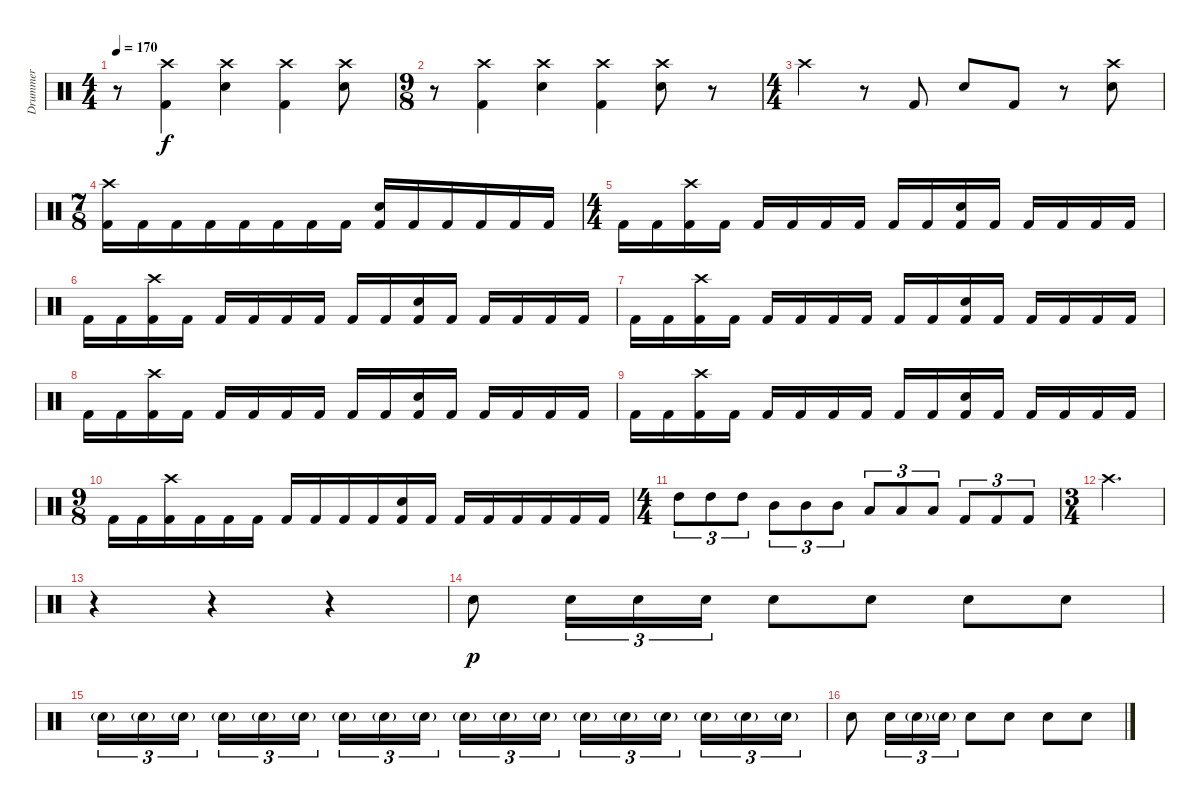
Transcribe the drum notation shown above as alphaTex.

\track ("Drummer" "Drummer") {instrument percussion}
\staff {score}
\articulation defaults
\ts (4 4)
\tempo 170
\clef neutral
\ks c
r.8{dy f} ("Crash high (hit)" "Kick (hit) 2").4 ("Crash high (hit)" "Electric Snare (hit)").4 ("Crash high (hit)" "Kick (hit) 2").4 ("Crash high (hit)" "Electric Snare (hit)").8 |
\ts (9 8)
r.8 ("Crash high (hit)" "Kick (hit) 2").4 ("Crash high (hit)" "Electric Snare (hit)").4 ("Crash high (hit)" "Kick (hit) 2").4 ("Crash high (hit)" "Electric Snare (hit)").8 r.8 |
\ts (4 4)
"Crash high (hit)".4 r.8 "Kick (hit) 2".8 "Electric Snare (hit)".8 "Kick (hit) 2".8 r.8 ("Crash high (hit)" "Electric Snare (hit)").8 |
\ts (7 8)
("Crash high (hit)" "Kick (hit) 2").16 "Kick (hit) 2".16 "Kick (hit) 2".16 "Kick (hit) 2".16 "Kick (hit) 2".16 "Kick (hit) 2".16 "Kick (hit) 2".16 "Kick (hit) 2".16 ("Electric Snare (hit)" "Kick (hit) 2").16 "Kick (hit) 2".16 "Kick (hit) 2".16 "Kick (hit) 2".16 "Kick (hit) 2".16 "Kick (hit) 2".16 |
\ts (4 4)
"Kick (hit) 2".16 "Kick (hit) 2".16 ("Crash high (hit)" "Kick (hit) 2").16 "Kick (hit) 2".16 "Kick (hit) 2".16 "Kick (hit) 2".16 "Kick (hit) 2".16 "Kick (hit) 2".16 "Kick (hit) 2".16 "Kick (hit) 2".16 ("Electric Snare (hit)" "Kick (hit) 2").16 "Kick (hit) 2".16 "Kick (hit) 2".16 "Kick (hit) 2".16 "Kick (hit) 2".16 "Kick (hit) 2".16 |
"Kick (hit) 2".16 "Kick (hit) 2".16 ("Crash high (hit)" "Kick (hit) 2").16 "Kick (hit) 2".16 "Kick (hit) 2".16 "Kick (hit) 2".16 "Kick (hit) 2".16 "Kick (hit) 2".16 "Kick (hit) 2".16 "Kick (hit) 2".16 ("Electric Snare (hit)" "Kick (hit) 2").16 "Kick (hit) 2".16 "Kick (hit) 2".16 "Kick (hit) 2".16 "Kick (hit) 2".16 "Kick (hit) 2".16 |
"Kick (hit) 2".16 "Kick (hit) 2".16 ("Crash high (hit)" "Kick (hit) 2").16 "Kick (hit) 2".16 "Kick (hit) 2".16 "Kick (hit) 2".16 "Kick (hit) 2".16 "Kick (hit) 2".16 "Kick (hit) 2".16 "Kick (hit) 2".16 ("Electric Snare (hit)" "Kick (hit) 2").16 "Kick (hit) 2".16 "Kick (hit) 2".16 "Kick (hit) 2".16 "Kick (hit) 2".16 "Kick (hit) 2".16 |
"Kick (hit) 2".16 "Kick (hit) 2".16 ("Crash high (hit)" "Kick (hit) 2").16 "Kick (hit) 2".16 "Kick (hit) 2".16 "Kick (hit) 2".16 "Kick (hit) 2".16 "Kick (hit) 2".16 "Kick (hit) 2".16 "Kick (hit) 2".16 ("Electric Snare (hit)" "Kick (hit) 2").16 "Kick (hit) 2".16 "Kick (hit) 2".16 "Kick (hit) 2".16 "Kick (hit) 2".16 "Kick (hit) 2".16 |
"Kick (hit) 2".16 "Kick (hit) 2".16 ("Crash high (hit)" "Kick (hit) 2").16 "Kick (hit) 2".16 "Kick (hit) 2".16 "Kick (hit) 2".16 "Kick (hit) 2".16 "Kick (hit) 2".16 "Kick (hit) 2".16 "Kick (hit) 2".16 ("Electric Snare (hit)" "Kick (hit) 2").16 "Kick (hit) 2".16 "Kick (hit) 2".16 "Kick (hit) 2".16 "Kick (hit) 2".16 "Kick (hit) 2".16 |
\ts (9 8)
"Kick (hit) 2".16 "Kick (hit) 2".16 ("Crash high (hit)" "Kick (hit) 2").16 "Kick (hit) 2".16 "Kick (hit) 2".16 "Kick (hit) 2".16 "Kick (hit) 2".16 "Kick (hit) 2".16 "Kick (hit) 2".16 "Kick (hit) 2".16 ("Electric Snare (hit)" "Kick (hit) 2").16 "Kick (hit) 2".16 "Kick (hit) 2".16 "Kick (hit) 2".16 "Kick (hit) 2".16 "Kick (hit) 2".16 "Kick (hit) 2".16 "Kick (hit) 2".16 |
\ts (4 4)
"High Tom (hit)".8{tu (3 2)} "High Tom (hit)".8{tu (3 2)} "High Tom (hit)".8{tu (3 2)} "Mid Tom (hit)".8{tu (3 2)} "Mid Tom (hit)".8{tu (3 2)} "Mid Tom (hit)".8{tu (3 2)} "Low Tom (hit)".8{tu (3 2)} "Low Tom (hit)".8{tu (3 2)} "Low Tom (hit)".8{tu (3 2)} "Kick (hit) 2".8{tu (3 2)} "Kick (hit) 2".8{tu (3 2)} "Kick (hit) 2".8{tu (3 2)} |
\ts (3 4)
"Crash high (hit)".2{d} |
r.4 r.4 r.4 |
"Electric Snare (hit)".8{dy p} "Electric Snare (hit)".16{tu (3 2)} "Electric Snare (hit)".16{tu (3 2)} "Electric Snare (hit)".16{tu (3 2)} "Electric Snare (hit)".8 "Electric Snare (hit)".8 "Electric Snare (hit)".8 "Electric Snare (hit)".8 |
"Electric Snare (hit)"{g}.16{tu (3 2)} "Electric Snare (hit)"{g}.16{tu (3 2)} "Electric Snare (hit)"{g}.16{tu (3 2) beam splitsecondary} "Electric Snare (hit)"{g}.16{tu (3 2)} "Electric Snare (hit)"{g}.16{tu (3 2)} "Electric Snare (hit)"{g}.16{tu (3 2)} "Electric Snare (hit)"{g}.16{tu (3 2)} "Electric Snare (hit)"{g}.16{tu (3 2)} "Electric Snare (hit)"{g}.16{tu (3 2) beam splitsecondary} "Electric Snare (hit)"{g}.16{tu (3 2)} "Electric Snare (hit)"{g}.16{tu (3 2)} "Electric Snare (hit)"{g}.16{tu (3 2)} "Electric Snare (hit)"{g}.16{tu (3 2)} "Electric Snare (hit)"{g}.16{tu (3 2)} "Electric Snare (hit)"{g}.16{tu (3 2) beam splitsecondary} "Electric Snare (hit)"{g}.16{tu (3 2)} "Electric Snare (hit)"{g}.16{tu (3 2)} "Electric Snare (hit)"{g}.16{tu (3 2)} |
"Electric Snare (hit)".8 "Electric Snare (hit)".16{tu (3 2)} "Electric Snare (hit)"{g}.16{tu (3 2)} "Electric Snare (hit)"{g}.16{tu (3 2)} "Electric Snare (hit)".8 "Electric Snare (hit)".8 "Electric Snare (hit)".8 "Electric Snare (hit)".8
